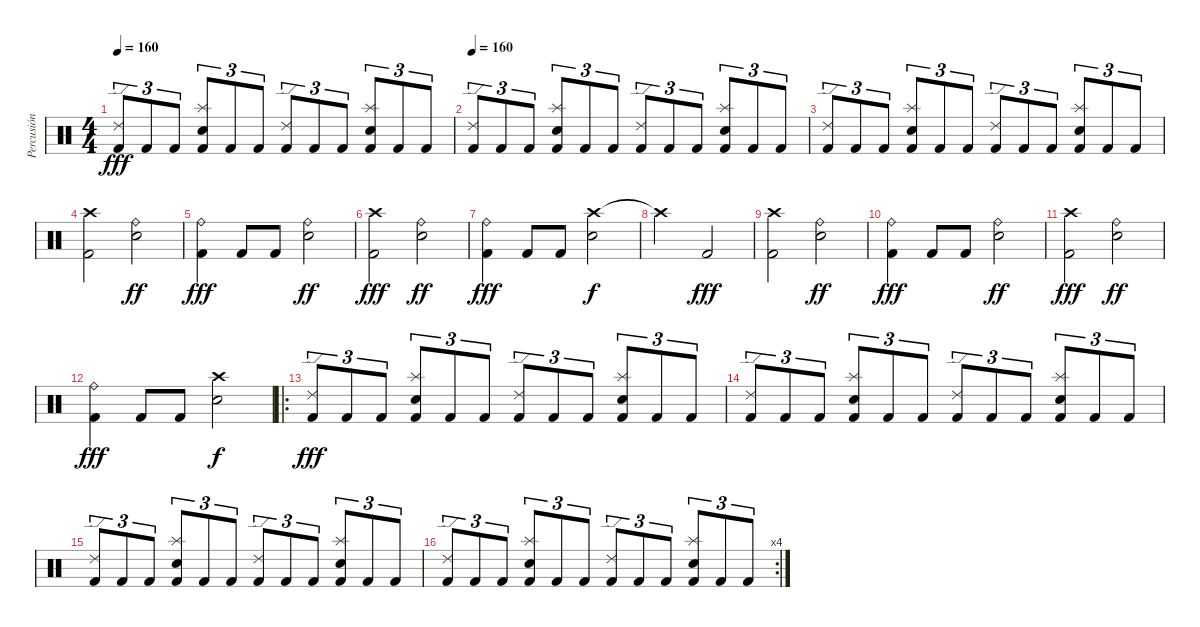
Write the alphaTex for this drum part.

\track ("Percusión" "Percusión") {instrument percussion}
\staff {score}
\articulation defaults
\ts (4 4)
\tempo 160
\clef neutral
\ks c
("Ride (edge) 2" "Kick (hit) 2").8{tu (3 2) dy fff} "Kick (hit) 2".8{tu (3 2)} "Kick (hit) 2".8{tu (3 2)} ("Splash (hit)" "Electric Snare (hit)" "Kick (hit) 2").8{tu (3 2)} "Kick (hit) 2".8{tu (3 2)} "Kick (hit) 2".8{tu (3 2)} ("Ride (edge) 2" "Kick (hit) 2").8{tu (3 2)} "Kick (hit) 2".8{tu (3 2)} "Kick (hit) 2".8{tu (3 2)} ("Splash (hit)" "Electric Snare (hit)" "Kick (hit) 2").8{tu (3 2)} "Kick (hit) 2".8{tu (3 2)} "Kick (hit) 2".8{tu (3 2)} |
\tempo 160
("Ride (edge) 2" "Kick (hit) 2").8{tu (3 2)} "Kick (hit) 2".8{tu (3 2)} "Kick (hit) 2".8{tu (3 2)} ("Splash (hit)" "Electric Snare (hit)" "Kick (hit) 2").8{tu (3 2)} "Kick (hit) 2".8{tu (3 2)} "Kick (hit) 2".8{tu (3 2)} ("Ride (edge) 2" "Kick (hit) 2").8{tu (3 2)} "Kick (hit) 2".8{tu (3 2)} "Kick (hit) 2".8{tu (3 2)} ("Splash (hit)" "Electric Snare (hit)" "Kick (hit) 2").8{tu (3 2)} "Kick (hit) 2".8{tu (3 2)} "Kick (hit) 2".8{tu (3 2)} |
("Ride (edge) 2" "Kick (hit) 2").8{tu (3 2)} "Kick (hit) 2".8{tu (3 2)} "Kick (hit) 2".8{tu (3 2)} ("Splash (hit)" "Electric Snare (hit)" "Kick (hit) 2").8{tu (3 2)} "Kick (hit) 2".8{tu (3 2)} "Kick (hit) 2".8{tu (3 2)} ("Ride (edge) 2" "Kick (hit) 2").8{tu (3 2)} "Kick (hit) 2".8{tu (3 2)} "Kick (hit) 2".8{tu (3 2)} ("Splash (hit)" "Electric Snare (hit)" "Kick (hit) 2").8{tu (3 2)} "Kick (hit) 2".8{tu (3 2)} "Kick (hit) 2".8{tu (3 2)} |
("Crash high (hit)" "Kick (hit) 2").2 ("Ride (bell)" "Snare (hit) 2").2{dy ff} |
("Ride (bell)" "Kick (hit) 2").4{dy fff} "Kick (hit) 2".8 "Kick (hit) 2".8 ("Ride (bell)" "Snare (hit) 2").2{dy ff} |
("Crash high (hit)" "Kick (hit) 2").2{dy fff} ("Ride (bell)" "Snare (hit) 2").2{dy ff} |
("Ride (bell)" "Kick (hit) 2").4{dy fff} "Kick (hit) 2".8 "Kick (hit) 2".8 ("Crash high (hit)" "Snare (hit) 2").2{dy f} |
"Crash high (hit)"{t}.2 "Kick (hit) 2".2{dy fff} |
("Crash high (hit)" "Kick (hit) 2").2 ("Ride (bell)" "Snare (hit) 2").2{dy ff} |
("Ride (bell)" "Kick (hit) 2").4{dy fff} "Kick (hit) 2".8 "Kick (hit) 2".8 ("Ride (bell)" "Snare (hit) 2").2{dy ff} |
("Crash high (hit)" "Kick (hit) 2").2{dy fff} ("Ride (bell)" "Snare (hit) 2").2{dy ff} |
("Ride (bell)" "Kick (hit) 2").4{dy fff} "Kick (hit) 2".8 "Kick (hit) 2".8 ("Crash high (hit)" "Snare (hit) 2").2{dy f} |
\ro
("Ride (edge) 2" "Kick (hit) 2").8{tu (3 2) dy fff} "Kick (hit) 2".8{tu (3 2)} "Kick (hit) 2".8{tu (3 2)} ("Splash (hit)" "Electric Snare (hit)" "Kick (hit) 2").8{tu (3 2)} "Kick (hit) 2".8{tu (3 2)} "Kick (hit) 2".8{tu (3 2)} ("Ride (edge) 2" "Kick (hit) 2").8{tu (3 2)} "Kick (hit) 2".8{tu (3 2)} "Kick (hit) 2".8{tu (3 2)} ("Splash (hit)" "Electric Snare (hit)" "Kick (hit) 2").8{tu (3 2)} "Kick (hit) 2".8{tu (3 2)} "Kick (hit) 2".8{tu (3 2)} |
("Ride (edge) 2" "Kick (hit) 2").8{tu (3 2)} "Kick (hit) 2".8{tu (3 2)} "Kick (hit) 2".8{tu (3 2)} ("Splash (hit)" "Electric Snare (hit)" "Kick (hit) 2").8{tu (3 2)} "Kick (hit) 2".8{tu (3 2)} "Kick (hit) 2".8{tu (3 2)} ("Ride (edge) 2" "Kick (hit) 2").8{tu (3 2)} "Kick (hit) 2".8{tu (3 2)} "Kick (hit) 2".8{tu (3 2)} ("Splash (hit)" "Electric Snare (hit)" "Kick (hit) 2").8{tu (3 2)} "Kick (hit) 2".8{tu (3 2)} "Kick (hit) 2".8{tu (3 2)} |
("Ride (edge) 2" "Kick (hit) 2").8{tu (3 2)} "Kick (hit) 2".8{tu (3 2)} "Kick (hit) 2".8{tu (3 2)} ("Splash (hit)" "Electric Snare (hit)" "Kick (hit) 2").8{tu (3 2)} "Kick (hit) 2".8{tu (3 2)} "Kick (hit) 2".8{tu (3 2)} ("Ride (edge) 2" "Kick (hit) 2").8{tu (3 2)} "Kick (hit) 2".8{tu (3 2)} "Kick (hit) 2".8{tu (3 2)} ("Splash (hit)" "Electric Snare (hit)" "Kick (hit) 2").8{tu (3 2)} "Kick (hit) 2".8{tu (3 2)} "Kick (hit) 2".8{tu (3 2)} |
\rc 4
("Ride (edge) 2" "Kick (hit) 2").8{tu (3 2)} "Kick (hit) 2".8{tu (3 2)} "Kick (hit) 2".8{tu (3 2)} ("Splash (hit)" "Electric Snare (hit)" "Kick (hit) 2").8{tu (3 2)} "Kick (hit) 2".8{tu (3 2)} "Kick (hit) 2".8{tu (3 2)} ("Ride (edge) 2" "Kick (hit) 2").8{tu (3 2)} "Kick (hit) 2".8{tu (3 2)} "Kick (hit) 2".8{tu (3 2)} ("Splash (hit)" "Electric Snare (hit)" "Kick (hit) 2").8{tu (3 2)} "Kick (hit) 2".8{tu (3 2)} "Kick (hit) 2".8{tu (3 2)}
